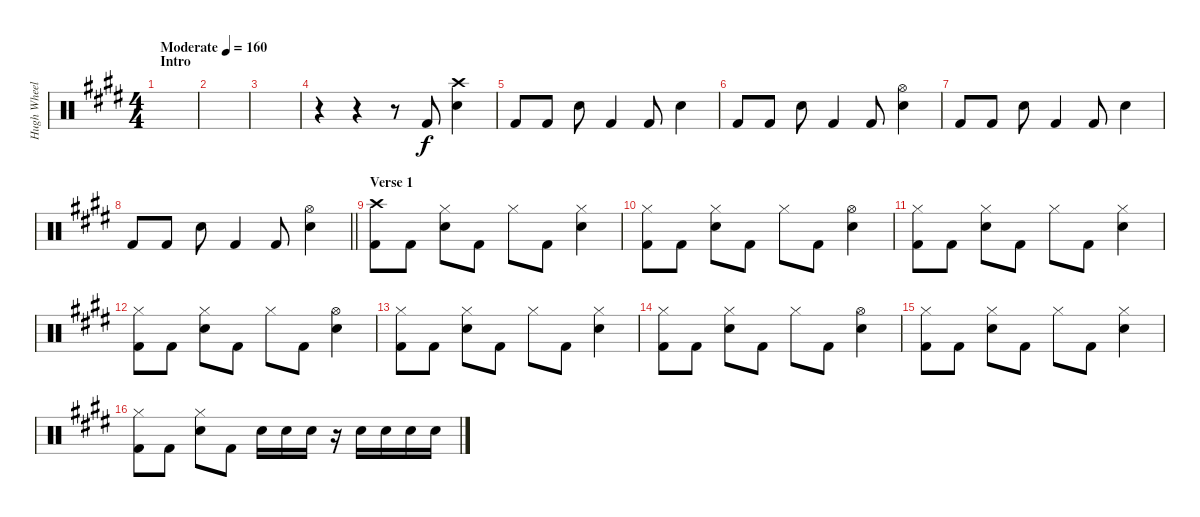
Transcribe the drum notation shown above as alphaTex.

\track ("Hugh Wheeler - Drums" "Hugh Wheel") {instrument percussion}
\staff {score}
\articulation defaults
\ts (4 4)
\section ("" "Intro")
\tempo (160 "Moderate")
\clef neutral
\ks e
|
|
|
r.4 r.4 r.8 "Kick (hit) 2".8 ("Crash high (hit)" "Electric Snare (hit)").4 |
"Kick (hit) 2".8 "Kick (hit) 2".8 "Electric Snare (hit)".8 "Kick (hit) 2".4 "Kick (hit) 2".8 "Electric Snare (hit)".4 |
"Kick (hit) 2".8 "Kick (hit) 2".8 "Electric Snare (hit)".8 "Kick (hit) 2".4 "Kick (hit) 2".8 ("Hi-Hat (open)" "Electric Snare (hit)").4 |
"Kick (hit) 2".8 "Kick (hit) 2".8 "Electric Snare (hit)".8 "Kick (hit) 2".4 "Kick (hit) 2".8 "Electric Snare (hit)".4 |
\barLineRight lightlight "Kick (hit) 2".8 "Kick (hit) 2".8 "Electric Snare (hit)".8 "Kick (hit) 2".4 "Kick (hit) 2".8
("Hi-Hat (open)" "Electric Snare (hit)").4 |
\section ("" "Verse 1")
("Crash high (hit)" "Kick (hit) 2").8 "Kick (hit) 2".8 ("Hi-Hat (closed)" "Electric Snare (hit)").8 "Kick (hit) 2".8 "Hi-Hat (closed)".8 "Kick (hit) 2".8 ("Hi-Hat (closed)" "Electric Snare (hit)").4 |
("Hi-Hat (closed)" "Kick (hit) 2").8 "Kick (hit) 2".8 ("Hi-Hat (closed)" "Electric Snare (hit)").8 "Kick (hit) 2".8 "Hi-Hat (closed)".8 "Kick (hit) 2".8 ("Hi-Hat (open)" "Electric Snare (hit)").4 |
("Hi-Hat (closed)" "Kick (hit) 2").8 "Kick (hit) 2".8 ("Hi-Hat (closed)" "Electric Snare (hit)").8 "Kick (hit) 2".8 "Hi-Hat (closed)".8 "Kick (hit) 2".8 ("Hi-Hat (closed)" "Electric Snare (hit)").4 |
("Hi-Hat (closed)" "Kick (hit) 2").8 "Kick (hit) 2".8 ("Hi-Hat (closed)" "Electric Snare (hit)").8 "Kick (hit) 2".8 "Hi-Hat (closed)".8 "Kick (hit) 2".8 ("Hi-Hat (open)" "Electric Snare (hit)").4 |
("Hi-Hat (closed)" "Kick (hit) 2").8 "Kick (hit) 2".8 ("Hi-Hat (closed)" "Electric Snare (hit)").8 "Kick (hit) 2".8 "Hi-Hat (closed)".8 "Kick (hit) 2".8 ("Hi-Hat (closed)" "Electric Snare (hit)").4 |
("Hi-Hat (closed)" "Kick (hit) 2").8 "Kick (hit) 2".8 ("Hi-Hat (closed)" "Electric Snare (hit)").8 "Kick (hit) 2".8 "Hi-Hat (closed)".8 "Kick (hit) 2".8 ("Hi-Hat (open)" "Electric Snare (hit)").4 |
("Hi-Hat (closed)" "Kick (hit) 2").8 "Kick (hit) 2".8 ("Hi-Hat (closed)" "Electric Snare (hit)").8 "Kick (hit) 2".8 "Hi-Hat (closed)".8 "Kick (hit) 2".8 ("Hi-Hat (closed)" "Electric Snare (hit)").4 |
("Hi-Hat (closed)" "Kick (hit) 2").8 "Kick (hit) 2".8 ("Hi-Hat (closed)" "Electric Snare (hit)").8 "Kick (hit) 2".8 "Electric Snare (hit)".16 "Electric Snare (hit)".16 "Electric Snare (hit)".16 r.16 "Electric Snare (hit)".16 "Electric Snare (hit)".16 "Electric Snare (hit)".16 "Electric Snare (hit)".16
